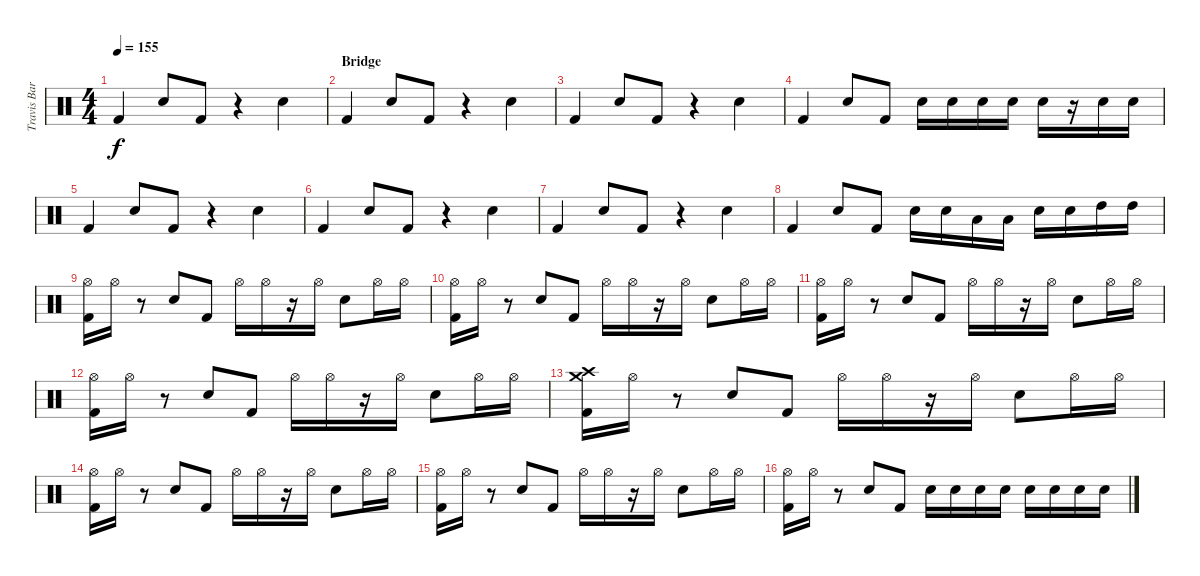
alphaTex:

\track ("Travis Barker Drums" "Travis Bar") {instrument percussion}
\staff {score}
\articulation defaults
\ts (4 4)
\tempo 155
\clef neutral
\ks c "Kick (hit) 2".4{dy f} "Electric Snare (hit)".8 "Kick (hit) 2".8
r.4 "Electric Snare (hit)".4 |
\section ("" "Bridge")
"Kick (hit) 2".4 "Electric Snare (hit)".8 "Kick (hit) 2".8 r.4 "Electric Snare (hit)".4 |
"Kick (hit) 2".4 "Electric Snare (hit)".8 "Kick (hit) 2".8 r.4 "Electric Snare (hit)".4 |
"Kick (hit) 2".4 "Electric Snare (hit)".8 "Kick (hit) 2".8 "Electric Snare (hit)".16 "Electric Snare (hit)".16 "Electric Snare (hit)".16 "Electric Snare (hit)".16 "Electric Snare (hit)".16 r.16 "Electric Snare (hit)".16 "Electric Snare (hit)".16 |
"Kick (hit) 2".4 "Electric Snare (hit)".8 "Kick (hit) 2".8 r.4 "Electric Snare (hit)".4 |
"Kick (hit) 2".4 "Electric Snare (hit)".8 "Kick (hit) 2".8 r.4 "Electric Snare (hit)".4 |
"Kick (hit) 2".4 "Electric Snare (hit)".8 "Kick (hit) 2".8 r.4 "Electric Snare (hit)".4 |
"Kick (hit) 2".4 "Electric Snare (hit)".8 "Kick (hit) 2".8 "Electric Snare (hit)".16 "Electric Snare (hit)".16 "Low Tom (hit)".16 "Low Tom (hit)".16 "Electric Snare (hit)".16 "Electric Snare (hit)".16 "High Tom (hit)".16 "High Tom (hit)".16 |
("Hi-Hat (open)" "Kick (hit) 2").16 "Hi-Hat (open)".16 r.8 "Electric Snare (hit)".8 "Kick (hit) 2".8 "Hi-Hat (open)".16 "Hi-Hat (open)".16 r.16 "Hi-Hat (open)".16 "Electric Snare (hit)".8 "Hi-Hat (open)".16 "Hi-Hat (open)".16 |
("Hi-Hat (open)" "Kick (hit) 2").16 "Hi-Hat (open)".16 r.8 "Electric Snare (hit)".8 "Kick (hit) 2".8 "Hi-Hat (open)".16 "Hi-Hat (open)".16 r.16 "Hi-Hat (open)".16 "Electric Snare (hit)".8 "Hi-Hat (open)".16 "Hi-Hat (open)".16 |
("Hi-Hat (open)" "Kick (hit) 2").16 "Hi-Hat (open)".16 r.8 "Electric Snare (hit)".8 "Kick (hit) 2".8 "Hi-Hat (open)".16 "Hi-Hat (open)".16 r.16 "Hi-Hat (open)".16 "Electric Snare (hit)".8 "Hi-Hat (open)".16 "Hi-Hat (open)".16 |
("Hi-Hat (open)" "Kick (hit) 2").16 "Hi-Hat (open)".16 r.8 "Electric Snare (hit)".8 "Kick (hit) 2".8 "Hi-Hat (open)".16 "Hi-Hat (open)".16 r.16 "Hi-Hat (open)".16 "Electric Snare (hit)".8 "Hi-Hat (open)".16 "Hi-Hat (open)".16 |
("Crash medium (hit)" "Crash high (hit)" "Kick (hit) 2").16 "Hi-Hat (open)".16 r.8 "Electric Snare (hit)".8 "Kick (hit) 2".8 "Hi-Hat (open)".16 "Hi-Hat (open)".16 r.16 "Hi-Hat (open)".16 "Electric Snare (hit)".8 "Hi-Hat (open)".16 "Hi-Hat (open)".16 |
("Hi-Hat (open)" "Kick (hit) 2").16 "Hi-Hat (open)".16 r.8 "Electric Snare (hit)".8 "Kick (hit) 2".8 "Hi-Hat (open)".16 "Hi-Hat (open)".16 r.16 "Hi-Hat (open)".16 "Electric Snare (hit)".8 "Hi-Hat (open)".16 "Hi-Hat (open)".16 |
("Hi-Hat (open)" "Kick (hit) 2").16 "Hi-Hat (open)".16 r.8 "Electric Snare (hit)".8 "Kick (hit) 2".8 "Hi-Hat (open)".16 "Hi-Hat (open)".16 r.16 "Hi-Hat (open)".16 "Electric Snare (hit)".8 "Hi-Hat (open)".16 "Hi-Hat (open)".16 |
("Hi-Hat (open)" "Kick (hit) 2").16 "Hi-Hat (open)".16 r.8 "Electric Snare (hit)".8 "Kick (hit) 2".8 "Electric Snare (hit)".16 "Electric Snare (hit)".16 "Electric Snare (hit)".16 "Electric Snare (hit)".16 "Electric Snare (hit)".16 "Electric Snare (hit)".16 "Electric Snare (hit)".16 "Electric Snare (hit)".16
